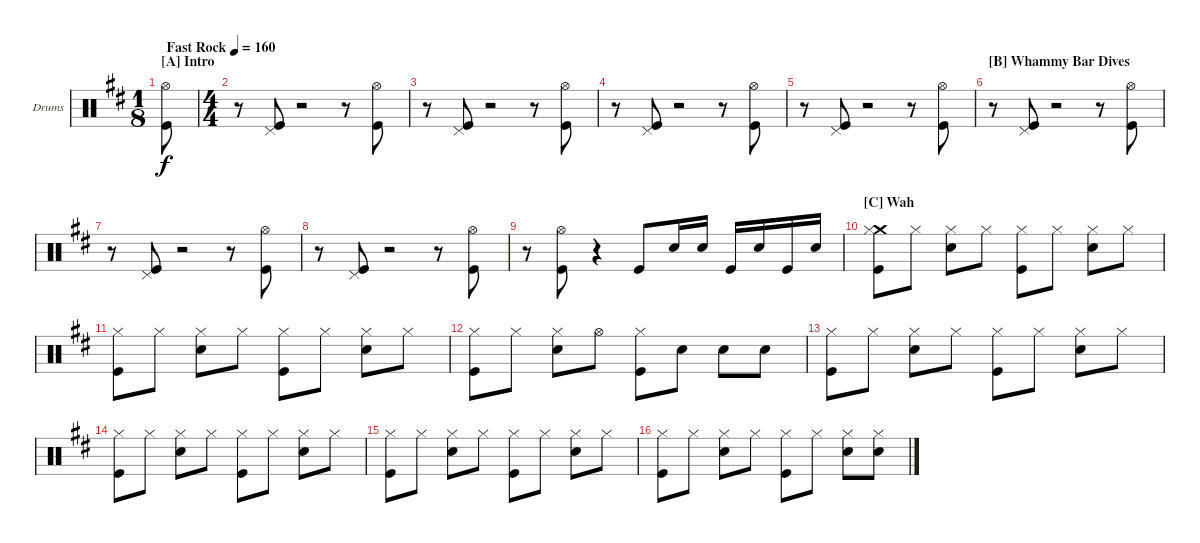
\defaultSystemsLayout 4
\bracketExtendMode groupsimilarinstruments
\firstSystemTrackNameOrientation horizontal
\otherSystemsTrackNameOrientation horizontal
\track ("Drumkit" "Drums") {instrument percussion}
\staff {score}
\articulation defaults
\ts (1 8)
\section ("A" "Intro")
\tempo (160 "Fast Rock")
\clef neutral
\scale
0.405405
\ks d
("Hi-Hat (open)" "Kick (hit)").8{dy f} |
\ts (4 4)
\scale
0.405405 r.8 ("Pedal Hi-Hat (hit)" "Kick (hit)").8 r.2 r.8 ("Hi-Hat (open)" "Kick (hit)").8 |
\scale
0.189189 r.8 ("Pedal Hi-Hat (hit)" "Kick (hit)").8 r.2 r.8 ("Hi-Hat (open)" "Kick (hit)").8 |
\scale
0.333333 r.8 ("Pedal Hi-Hat (hit)" "Kick (hit)").8 r.2 r.8 ("Hi-Hat (open)" "Kick (hit)").8 |
\scale
0.333333 r.8 ("Pedal Hi-Hat (hit)" "Kick (hit)").8 r.2 r.8 ("Hi-Hat (open)" "Kick (hit)").8 |
\section ("B" "Whammy Bar Dives")
\scale
0.333333 r.8 ("Pedal Hi-Hat (hit)" "Kick (hit)").8 r.2 r.8 ("Hi-Hat (open)" "Kick (hit)").8 |
\scale
0.333333 r.8 ("Pedal Hi-Hat (hit)" "Kick (hit)").8 r.2 r.8 ("Hi-Hat (open)" "Kick (hit)").8 |
\scale
0.333333 r.8 ("Pedal Hi-Hat (hit)" "Kick (hit)").8 r.2 r.8 ("Hi-Hat (open)" "Kick (hit)").8 |
\scale
0.333333 r.8 ("Hi-Hat (open)" "Kick (hit)").8 r.4 "Kick (hit)".8 "Snare (hit) 2".16 "Snare (hit) 2".16 "Kick (hit)".16 "Snare (hit) 2".16 "Kick (hit)".16 "Snare (hit) 2".16 |
\section ("C" "Wah")
\scale
0.333333 ("Crash medium (hit)" "Hi-Hat (closed)" "Kick (hit)").8 "Hi-Hat (closed)".8 ("Hi-Hat (closed)" "Snare (hit) 2").8 "Hi-Hat (closed)".8 ("Hi-Hat (closed)" "Kick (hit)").8 "Hi-Hat (closed)".8 ("Hi-Hat (closed)" "Snare (hit) 2").8 "Hi-Hat (closed)".8 |
\scale
0.333333 ("Hi-Hat (closed)" "Kick (hit)").8 "Hi-Hat (closed)".8 ("Hi-Hat (closed)" "Snare (hit) 2").8 "Hi-Hat (closed)".8 ("Hi-Hat (closed)" "Kick (hit)").8 "Hi-Hat (closed)".8 ("Hi-Hat (closed)" "Snare (hit) 2").8 "Hi-Hat (closed)".8 |
\scale
0.333333 ("Hi-Hat (closed)" "Kick (hit)").8 "Hi-Hat (closed)".8 ("Hi-Hat (closed)" "Snare (hit) 2").8 "Hi-Hat (open)".8 ("Hi-Hat (closed)" "Kick (hit)").8 "Snare (hit) 2".8 "Snare (hit) 2".8 "Snare (hit) 2".8 |
\scale
0.333333 ("Hi-Hat (closed)" "Kick (hit)").8 "Hi-Hat (closed)".8 ("Hi-Hat (closed)" "Snare (hit) 2").8 "Hi-Hat (closed)".8 ("Hi-Hat (closed)" "Kick (hit)").8 "Hi-Hat (closed)".8 ("Hi-Hat (closed)" "Snare (hit) 2").8 "Hi-Hat (closed)".8 |
\scale
0.333333 ("Hi-Hat (closed)" "Kick (hit)").8 "Hi-Hat (closed)".8 ("Hi-Hat (closed)" "Snare (hit) 2").8 "Hi-Hat (closed)".8 ("Hi-Hat (closed)" "Kick (hit)").8 "Hi-Hat (closed)".8 ("Hi-Hat (closed)" "Snare (hit) 2").8 "Hi-Hat (closed)".8 |
\scale
0.333333 ("Hi-Hat (closed)" "Kick (hit)").8 "Hi-Hat (closed)".8 ("Hi-Hat (closed)" "Snare (hit) 2").8 "Hi-Hat (closed)".8 ("Hi-Hat (closed)" "Kick (hit)").8 "Hi-Hat (closed)".8 ("Hi-Hat (closed)" "Snare (hit) 2").8 "Hi-Hat (closed)".8 |
\scale
0.333333 ("Hi-Hat (closed)" "Kick (hit)").8 "Hi-Hat (closed)".8 ("Hi-Hat (closed)" "Snare (hit) 2").8 "Hi-Hat (closed)".8 ("Hi-Hat (closed)" "Kick (hit)").8 "Hi-Hat (closed)".8 ("Hi-Hat (closed)" "Snare (hit) 2").8 ("Hi-Hat (closed)" "Snare (hit) 2").8
